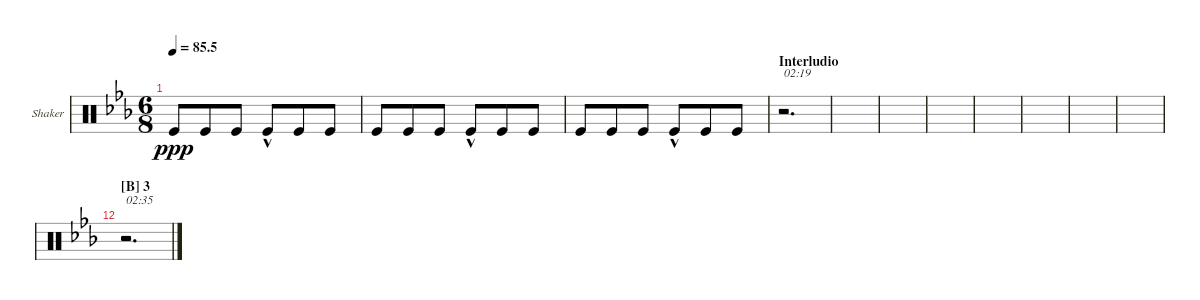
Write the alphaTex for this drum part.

\defaultSystemsLayout 4
\bracketExtendMode groupsimilarinstruments
\multiTrackTrackNamePolicy allsystems
\firstSystemTrackNameOrientation horizontal
\otherSystemsTrackNameOrientation horizontal
\defaultBarNumberDisplay FirstOfSystem
\track ("Shaker" "Shaker") {instrument percussion}
\staff {score}
\articulation defaults
\ts (6 8)
\tempo
85.5
\accidentals auto
\clef neutral
\ottava regular
\simile none
\scale
0.333333
\ks eb "Kick (hit)".8{dy ppp} "Kick (hit)".8 "Kick (hit)".8 "Kick (hit)"{hac}.8 "Kick (hit)".8 "Kick (hit)".8
|
\scale
0.333333 "Kick (hit)".8 "Kick (hit)".8 "Kick (hit)".8 "Kick (hit)"{hac}.8 "Kick (hit)".8 "Kick (hit)".8 |
\scale
0.333333 "Kick (hit)".8 "Kick (hit)".8 "Kick (hit)".8 "Kick (hit)"{hac}.8 "Kick (hit)".8 "Kick (hit)".8 |
\section ("" "Interludio")
\scale
0.333333 r.2{d txt "02:19"} |
\scale
0.333333 |
\scale
0.333333 |
\scale
0.333333 |
\scale
0.333333 |
\scale
0.333333 |
\scale
0.333333 |
\scale
0.333333 |
\section ("B" "3")
\scale
0.333333 r.2{d txt "02:35"} |
\scale
0.333333 |
\scale
0.333333 |
\scale
0.333333 |
\scale
0.333333
